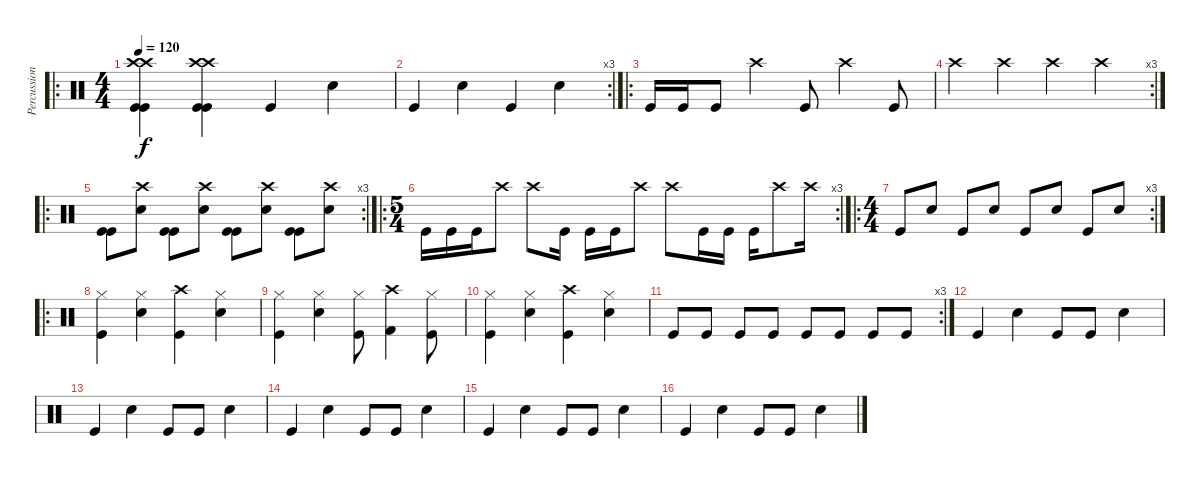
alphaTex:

\track ("Percussion" "Percussion") {instrument percussion}
\staff {score}
\articulation defaults
\ro
\ts (4 4)
\tempo 120
\clef neutral
\ks c
("Crash high (hit)" "Crash high (hit)" "Kick (hit)" "Kick (hit)").4{dy f} ("Crash high (hit)" "Crash high (hit)" "Kick (hit)" "Kick (hit)").4 "Kick (hit)".4 "Snare (hit) 2".4 |
\rc 3 "Kick (hit)".4 "Snare (hit) 2".4 "Kick (hit)".4 "Snare (hit) 2".4
|
\ro "Kick (hit)".16 "Kick (hit)".16 "Kick (hit)".8 "Crash high (hit)".4 "Kick (hit)".8 "Crash high (hit)".4 "Kick (hit)".8
|
\rc 3 "Crash high (hit)".4 "Crash high (hit)".4 "Crash high (hit)".4 "Crash high (hit)".4
|
\ro
\rc 3
("Kick (hit)" "Kick (hit)").8 ("Crash high (hit)" "Snare (hit) 2").8 ("Kick (hit)" "Kick (hit)").8 ("Crash high (hit)" "Snare (hit) 2").8 ("Kick (hit)" "Kick (hit)").8 ("Crash high (hit)" "Snare (hit) 2").8 ("Kick (hit)" "Kick (hit)").8 ("Crash high (hit)" "Snare (hit) 2").8 |
\ro
\rc 3
\ts (5 4)
"Kick (hit)".16 "Kick (hit)".16 "Kick (hit)".16 "Crash high (hit)".8 "Crash high (hit)".8 "Kick (hit)".16 "Kick (hit)".16 "Kick (hit)".16 "Crash high (hit)".8 "Crash high (hit)".8 "Kick (hit)".16 "Kick (hit)".16 "Kick (hit)".16 "Crash high (hit)".8 "Crash high (hit)".16 |
\ro
\rc 3
\ts (4 4)
"Kick (hit)".8 "Snare (hit) 2".8 "Kick (hit)".8 "Snare (hit) 2".8 "Kick (hit)".8 "Snare (hit) 2".8 "Kick (hit)".8 "Snare (hit) 2".8 |
\ro
("Kick (hit)" "Hi-Hat (closed)").4 ("Hi-Hat (closed)" "Snare (hit) 2").4 ("Crash high (hit)" "Kick (hit)").4 ("Snare (hit) 2" "Hi-Hat (closed)").4 |
("Kick (hit)" "Hi-Hat (closed)").4 ("Hi-Hat (closed)" "Snare (hit) 2").4 ("Kick (hit)" "Hi-Hat (closed)").8 ("Kick (hit) 2" "Crash high (hit)").4 ("Hi-Hat (closed)" "Kick (hit)").8 |
("Kick (hit)" "Hi-Hat (closed)").4 ("Hi-Hat (closed)" "Snare (hit) 2").4 ("Crash high (hit)" "Kick (hit)").4 ("Snare (hit) 2" "Hi-Hat (closed)").4 |
\rc 3 "Kick (hit)".8 "Kick (hit)".8 "Kick (hit)".8 "Kick (hit)".8 "Kick (hit)".8 "Kick (hit)".8 "Kick (hit)".8 "Kick (hit)".8
|
"Kick (hit)".4 "Snare (hit) 2".4 "Kick (hit)".8 "Kick (hit)".8 "Snare (hit) 2".4 |
"Kick (hit)".4 "Snare (hit) 2".4 "Kick (hit)".8 "Kick (hit)".8 "Snare (hit) 2".4 |
"Kick (hit)".4 "Snare (hit) 2".4 "Kick (hit)".8 "Kick (hit)".8 "Snare (hit) 2".4 |
"Kick (hit)".4 "Snare (hit) 2".4 "Kick (hit)".8 "Kick (hit)".8 "Snare (hit) 2".4 |
"Kick (hit)".4 "Snare (hit) 2".4 "Kick (hit)".8 "Kick (hit)".8 "Snare (hit) 2".4
